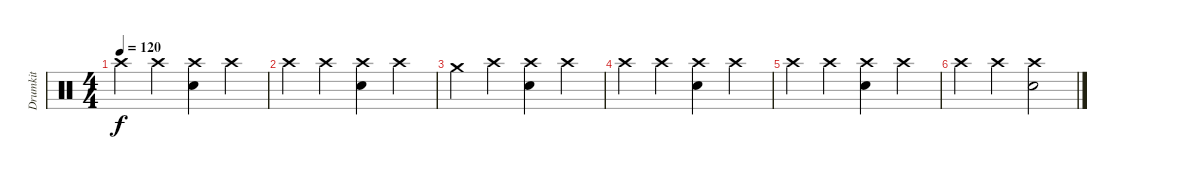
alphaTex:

\track ("Drumkit" "Drumkit") {instrument percussion}
\staff {score}
\articulation defaults
\ts (4 4)
\tempo 120
\clef neutral
\ks c "Crash high (hit)".4{dy f} "Crash high (hit)".4
("Crash high (hit)" "Electric Snare (hit)").4 "Crash high (hit)".4 |
"Crash high (hit)".4 "Crash high (hit)".4 ("Crash high (hit)" "Electric Snare (hit)").4 "Crash high (hit)".4 |
"Crash medium (hit)".4 "Crash high (hit)".4 ("Crash high (hit)" "Electric Snare (hit)").4 "Crash high (hit)".4 |
"Crash high (hit)".4 "Crash high (hit)".4 ("Crash high (hit)" "Electric Snare (hit)").4 "Crash high (hit)".4 |
"Crash high (hit)".4 "Crash high (hit)".4 ("Crash high (hit)" "Electric Snare (hit)").4 "Crash high (hit)".4 |
"Crash high (hit)".4 "Crash high (hit)".4 ("Crash high (hit)" "Electric Snare (hit)").2
